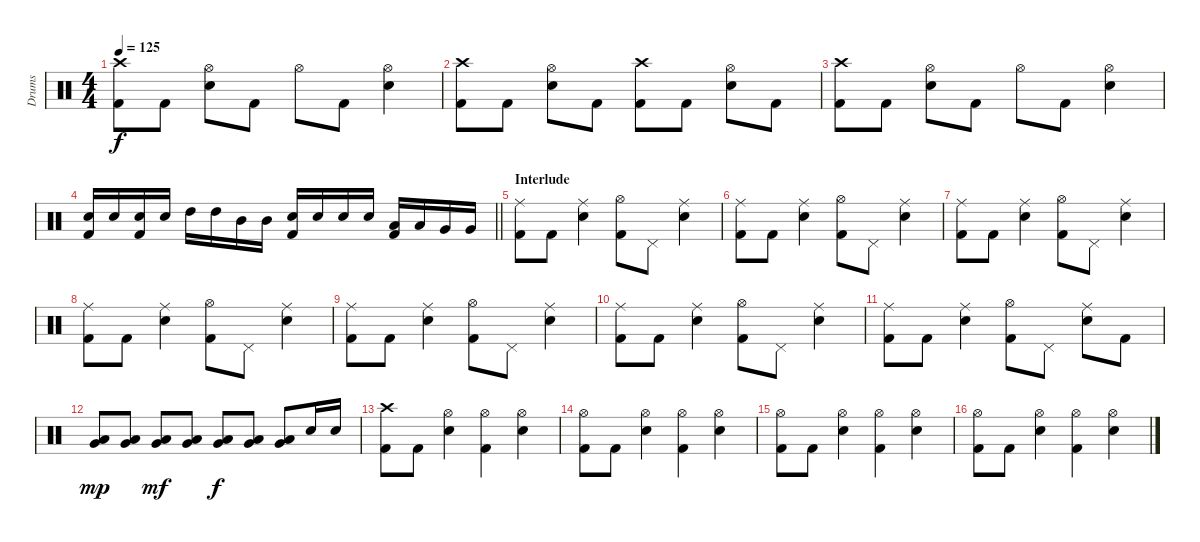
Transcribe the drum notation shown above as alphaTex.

\track ("Drums" "Drums") {instrument percussion}
\staff {score}
\articulation defaults
\ts (4 4)
\tempo 125
\clef neutral
\ks c
("Crash high (hit)" "Kick (hit) 2").8{dy f} "Kick (hit) 2".8 ("Hi-Hat (open)" "Electric Snare (hit)").8 "Kick (hit) 2".8 "Hi-Hat (open)".8 "Kick (hit) 2".8 ("Hi-Hat (open)" "Electric Snare (hit)").4 |
("Crash high (hit)" "Kick (hit) 2").8 "Kick (hit) 2".8 ("Hi-Hat (open)" "Electric Snare (hit)").8 "Kick (hit) 2".8 ("Crash high (hit)" "Kick (hit) 2").8 "Kick (hit) 2".8 ("Hi-Hat (open)" "Electric Snare (hit)").8 "Kick (hit) 2".8 |
("Crash high (hit)" "Kick (hit) 2").8 "Kick (hit) 2".8 ("Hi-Hat (open)" "Electric Snare (hit)").8 "Kick (hit) 2".8 "Hi-Hat (open)".8 "Kick (hit) 2".8 ("Hi-Hat (open)" "Electric Snare (hit)").4 |
\barLineRight lightlight
("Electric Snare (hit)" "Kick (hit) 2").16 "Electric Snare (hit)".16 ("Electric Snare (hit)" "Kick (hit) 2").16 "Electric Snare (hit)".16 "High Tom (hit)".16 "High Tom (hit)".16 "Mid Tom (hit)".16 "Mid Tom (hit)".16 ("Electric Snare (hit)" "Kick (hit) 2").16 "Electric Snare (hit)".16 "Electric Snare (hit)".16 "Electric Snare (hit)".16 ("Low Tom (hit)" "Kick (hit) 2").16 "Low Tom (hit)".16 "Very Low Tom (hit)".16 "Very Low Tom (hit)".16 |
\section ("" "Interlude")
("Ride (middle)" "Kick (hit) 2").8 "Kick (hit) 2".8 ("Ride (middle)" "Electric Snare (hit)").4 ("Hi-Hat (open)" "Kick (hit) 2").8 "Pedal Hi-Hat (hit)".8 ("Ride (middle)" "Electric Snare (hit)").4 |
("Ride (middle)" "Kick (hit) 2").8 "Kick (hit) 2".8 ("Ride (middle)" "Electric Snare (hit)").4 ("Hi-Hat (open)" "Kick (hit) 2").8 "Pedal Hi-Hat (hit)".8 ("Ride (middle)" "Electric Snare (hit)").4 |
("Ride (middle)" "Kick (hit) 2").8 "Kick (hit) 2".8 ("Ride (middle)" "Electric Snare (hit)").4 ("Hi-Hat (open)" "Kick (hit) 2").8 "Pedal Hi-Hat (hit)".8 ("Ride (middle)" "Electric Snare (hit)").4 |
("Ride (middle)" "Kick (hit) 2").8 "Kick (hit) 2".8 ("Ride (middle)" "Electric Snare (hit)").4 ("Hi-Hat (open)" "Kick (hit) 2").8 "Pedal Hi-Hat (hit)".8 ("Ride (middle)" "Electric Snare (hit)").4 |
("Ride (middle)" "Kick (hit) 2").8 "Kick (hit) 2".8 ("Ride (middle)" "Electric Snare (hit)").4 ("Hi-Hat (open)" "Kick (hit) 2").8 "Pedal Hi-Hat (hit)".8 ("Ride (middle)" "Electric Snare (hit)").4 |
("Ride (middle)" "Kick (hit) 2").8 "Kick (hit) 2".8 ("Ride (middle)" "Electric Snare (hit)").4 ("Hi-Hat (open)" "Kick (hit) 2").8 "Pedal Hi-Hat (hit)".8 ("Ride (middle)" "Electric Snare (hit)").4 |
("Ride (middle)" "Kick (hit) 2").8 "Kick (hit) 2".8 ("Ride (middle)" "Electric Snare (hit)").4 ("Hi-Hat (open)" "Kick (hit) 2").8 "Pedal Hi-Hat (hit)".8 ("Ride (middle)" "Electric Snare (hit)").8 "Kick (hit) 2".8 |
("Low Tom (hit)" "Very Low Tom (hit)").8{dy mp} ("Low Tom (hit)" "Very Low Tom (hit)").8 ("Low Tom (hit)" "Very Low Tom (hit)").8{dy mf} ("Low Tom (hit)" "Very Low Tom (hit)").8 ("Low Tom (hit)" "Very Low Tom (hit)").8{dy f} ("Low Tom (hit)" "Very Low Tom (hit)").8 ("Low Tom (hit)" "Very Low Tom (hit)").8 "Electric Snare (hit)".16 "Electric Snare (hit)".16 |
("Crash high (hit)" "Kick (hit) 2").8 "Kick (hit) 2".8 ("Hi-Hat (open)" "Electric Snare (hit)").4 ("Hi-Hat (open)" "Kick (hit) 2").4 ("Hi-Hat (open)" "Electric Snare (hit)").4 |
("Hi-Hat (open)" "Kick (hit) 2").8 "Kick (hit) 2".8 ("Hi-Hat (open)" "Electric Snare (hit)").4 ("Hi-Hat (open)" "Kick (hit) 2").4 ("Hi-Hat (open)" "Electric Snare (hit)").4 |
("Hi-Hat (open)" "Kick (hit) 2").8 "Kick (hit) 2".8 ("Hi-Hat (open)" "Electric Snare (hit)").4 ("Hi-Hat (open)" "Kick (hit) 2").4 ("Hi-Hat (open)" "Electric Snare (hit)").4 |
("Hi-Hat (open)" "Kick (hit) 2").8 "Kick (hit) 2".8 ("Hi-Hat (open)" "Electric Snare (hit)").4 ("Hi-Hat (open)" "Kick (hit) 2").4 ("Hi-Hat (open)" "Electric Snare (hit)").4
